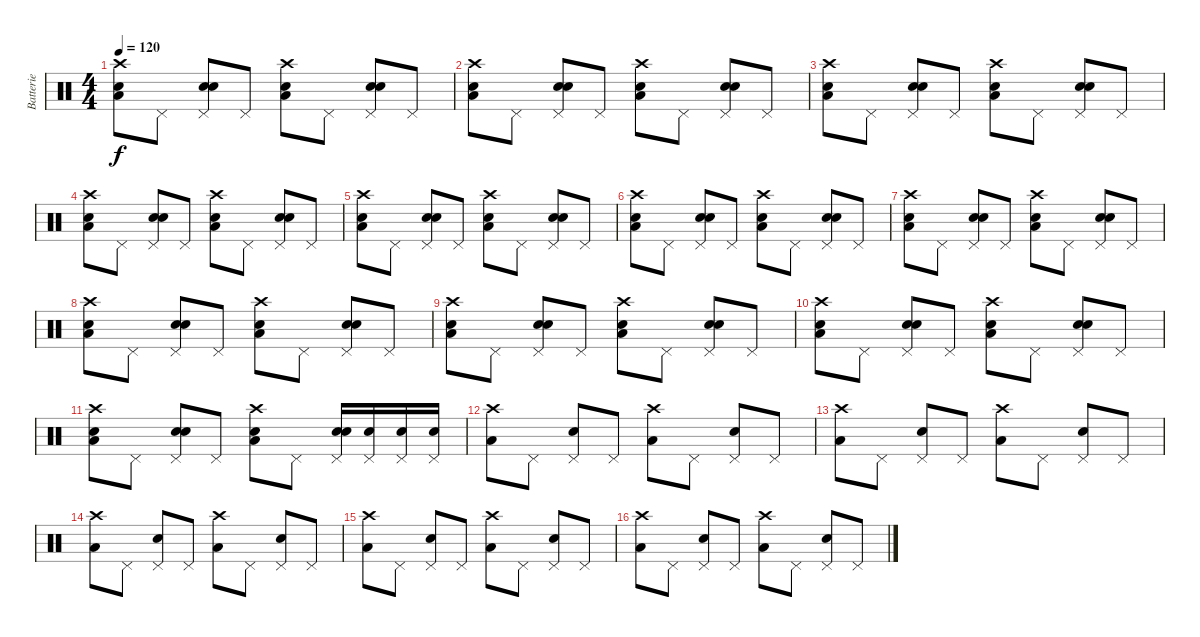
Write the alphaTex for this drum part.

\track ("Batterie" "Batterie") {instrument percussion}
\staff {score}
\articulation defaults
\ts (4 4)
\tempo 120
\clef neutral
\ks c
("Crash high (hit)" "Low Floor Tom (hit)" "Snare (hit) 2").8{dy f} "Pedal Hi-Hat (hit)".8 ("Pedal Hi-Hat (hit)" "Electric Snare (hit)" "Snare (hit) 2").8 "Pedal Hi-Hat (hit)".8 ("Crash high (hit)" "Low Floor Tom (hit)" "Snare (hit) 2").8 "Pedal Hi-Hat (hit)".8 ("Pedal Hi-Hat (hit)" "Electric Snare (hit)" "Snare (hit) 2").8 "Pedal Hi-Hat (hit)".8 |
("Crash high (hit)" "Low Floor Tom (hit)" "Snare (hit) 2").8 "Pedal Hi-Hat (hit)".8 ("Pedal Hi-Hat (hit)" "Electric Snare (hit)" "Snare (hit) 2").8 "Pedal Hi-Hat (hit)".8 ("Crash high (hit)" "Low Floor Tom (hit)" "Snare (hit) 2").8 "Pedal Hi-Hat (hit)".8 ("Pedal Hi-Hat (hit)" "Electric Snare (hit)" "Snare (hit) 2").8 "Pedal Hi-Hat (hit)".8 |
("Crash high (hit)" "Low Floor Tom (hit)" "Snare (hit) 2").8 "Pedal Hi-Hat (hit)".8 ("Pedal Hi-Hat (hit)" "Electric Snare (hit)" "Snare (hit) 2").8 "Pedal Hi-Hat (hit)".8 ("Crash high (hit)" "Low Floor Tom (hit)" "Snare (hit) 2").8 "Pedal Hi-Hat (hit)".8 ("Pedal Hi-Hat (hit)" "Electric Snare (hit)" "Snare (hit) 2").8 "Pedal Hi-Hat (hit)".8 |
("Crash high (hit)" "Low Floor Tom (hit)" "Snare (hit) 2").8 "Pedal Hi-Hat (hit)".8 ("Pedal Hi-Hat (hit)" "Electric Snare (hit)" "Snare (hit) 2").8 "Pedal Hi-Hat (hit)".8 ("Crash high (hit)" "Low Floor Tom (hit)" "Snare (hit) 2").8 "Pedal Hi-Hat (hit)".8 ("Pedal Hi-Hat (hit)" "Electric Snare (hit)" "Snare (hit) 2").8 "Pedal Hi-Hat (hit)".8 |
("Crash high (hit)" "Low Floor Tom (hit)" "Snare (hit) 2").8 "Pedal Hi-Hat (hit)".8 ("Pedal Hi-Hat (hit)" "Electric Snare (hit)" "Snare (hit) 2").8 "Pedal Hi-Hat (hit)".8 ("Crash high (hit)" "Low Floor Tom (hit)" "Snare (hit) 2").8 "Pedal Hi-Hat (hit)".8 ("Pedal Hi-Hat (hit)" "Electric Snare (hit)" "Snare (hit) 2").8 "Pedal Hi-Hat (hit)".8 |
("Crash high (hit)" "Low Floor Tom (hit)" "Snare (hit) 2").8 "Pedal Hi-Hat (hit)".8 ("Pedal Hi-Hat (hit)" "Electric Snare (hit)" "Snare (hit) 2").8 "Pedal Hi-Hat (hit)".8 ("Crash high (hit)" "Low Floor Tom (hit)" "Snare (hit) 2").8 "Pedal Hi-Hat (hit)".8 ("Pedal Hi-Hat (hit)" "Electric Snare (hit)" "Snare (hit) 2").8 "Pedal Hi-Hat (hit)".8 |
("Crash high (hit)" "Low Floor Tom (hit)" "Snare (hit) 2").8 "Pedal Hi-Hat (hit)".8 ("Pedal Hi-Hat (hit)" "Electric Snare (hit)" "Snare (hit) 2").8 "Pedal Hi-Hat (hit)".8 ("Crash high (hit)" "Low Floor Tom (hit)" "Snare (hit) 2").8 "Pedal Hi-Hat (hit)".8 ("Pedal Hi-Hat (hit)" "Electric Snare (hit)" "Snare (hit) 2").8 "Pedal Hi-Hat (hit)".8 |
("Crash high (hit)" "Low Floor Tom (hit)" "Snare (hit) 2").8 "Pedal Hi-Hat (hit)".8 ("Pedal Hi-Hat (hit)" "Electric Snare (hit)" "Snare (hit) 2").8 "Pedal Hi-Hat (hit)".8 ("Crash high (hit)" "Low Floor Tom (hit)" "Snare (hit) 2").8 "Pedal Hi-Hat (hit)".8 ("Pedal Hi-Hat (hit)" "Electric Snare (hit)" "Snare (hit) 2").8 "Pedal Hi-Hat (hit)".8 |
("Crash high (hit)" "Low Floor Tom (hit)" "Snare (hit) 2").8 "Pedal Hi-Hat (hit)".8 ("Pedal Hi-Hat (hit)" "Electric Snare (hit)" "Snare (hit) 2").8 "Pedal Hi-Hat (hit)".8 ("Crash high (hit)" "Low Floor Tom (hit)" "Snare (hit) 2").8 "Pedal Hi-Hat (hit)".8 ("Pedal Hi-Hat (hit)" "Electric Snare (hit)" "Snare (hit) 2").8 "Pedal Hi-Hat (hit)".8 |
("Crash high (hit)" "Low Floor Tom (hit)" "Snare (hit) 2").8 "Pedal Hi-Hat (hit)".8 ("Pedal Hi-Hat (hit)" "Electric Snare (hit)" "Snare (hit) 2").8 "Pedal Hi-Hat (hit)".8 ("Crash high (hit)" "Low Floor Tom (hit)" "Snare (hit) 2").8 "Pedal Hi-Hat (hit)".8 ("Pedal Hi-Hat (hit)" "Electric Snare (hit)" "Snare (hit) 2").8 "Pedal Hi-Hat (hit)".8 |
("Crash high (hit)" "Low Floor Tom (hit)" "Snare (hit) 2").8 "Pedal Hi-Hat (hit)".8 ("Pedal Hi-Hat (hit)" "Electric Snare (hit)" "Snare (hit) 2").8 "Pedal Hi-Hat (hit)".8 ("Crash high (hit)" "Low Floor Tom (hit)" "Snare (hit) 2").8 "Pedal Hi-Hat (hit)".8 ("Pedal Hi-Hat (hit)" "Electric Snare (hit)" "Snare (hit) 2").16 ("Pedal Hi-Hat (hit)" "Electric Snare (hit)").16 ("Pedal Hi-Hat (hit)" "Electric Snare (hit)").16 ("Pedal Hi-Hat (hit)" "Electric Snare (hit)").16 |
("Crash high (hit)" "Low Floor Tom (hit)").8 "Pedal Hi-Hat (hit)".8 ("Pedal Hi-Hat (hit)" "Electric Snare (hit)").8 "Pedal Hi-Hat (hit)".8 ("Crash high (hit)" "Low Floor Tom (hit)").8 "Pedal Hi-Hat (hit)".8 ("Pedal Hi-Hat (hit)" "Electric Snare (hit)").8 "Pedal Hi-Hat (hit)".8 |
("Crash high (hit)" "Low Floor Tom (hit)").8 "Pedal Hi-Hat (hit)".8 ("Pedal Hi-Hat (hit)" "Electric Snare (hit)").8 "Pedal Hi-Hat (hit)".8 ("Crash high (hit)" "Low Floor Tom (hit)").8 "Pedal Hi-Hat (hit)".8 ("Pedal Hi-Hat (hit)" "Electric Snare (hit)").8 "Pedal Hi-Hat (hit)".8 |
("Crash high (hit)" "Low Floor Tom (hit)").8 "Pedal Hi-Hat (hit)".8 ("Pedal Hi-Hat (hit)" "Electric Snare (hit)").8 "Pedal Hi-Hat (hit)".8 ("Crash high (hit)" "Low Floor Tom (hit)").8 "Pedal Hi-Hat (hit)".8 ("Pedal Hi-Hat (hit)" "Electric Snare (hit)").8 "Pedal Hi-Hat (hit)".8 |
("Crash high (hit)" "Low Floor Tom (hit)").8 "Pedal Hi-Hat (hit)".8 ("Pedal Hi-Hat (hit)" "Electric Snare (hit)").8 "Pedal Hi-Hat (hit)".8 ("Crash high (hit)" "Low Floor Tom (hit)").8 "Pedal Hi-Hat (hit)".8 ("Pedal Hi-Hat (hit)" "Electric Snare (hit)").8 "Pedal Hi-Hat (hit)".8 |
("Crash high (hit)" "Low Floor Tom (hit)").8 "Pedal Hi-Hat (hit)".8 ("Pedal Hi-Hat (hit)" "Electric Snare (hit)").8 "Pedal Hi-Hat (hit)".8 ("Crash high (hit)" "Low Floor Tom (hit)").8 "Pedal Hi-Hat (hit)".8 ("Pedal Hi-Hat (hit)" "Electric Snare (hit)").8 "Pedal Hi-Hat (hit)".8
